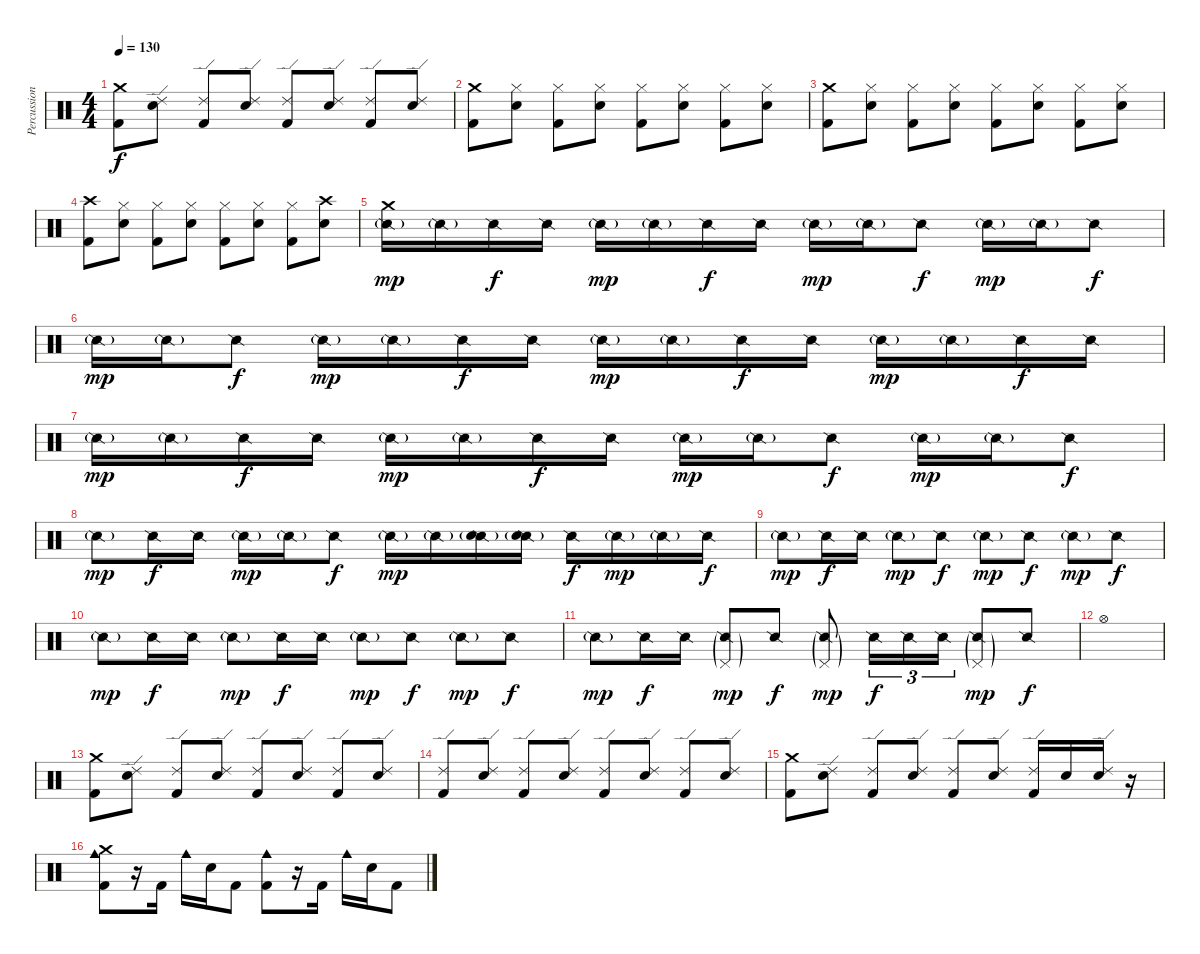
\track ("Percussion" "Percussion") {instrument percussion}
\staff {score}
\articulation defaults
\ts (4 4)
\tempo 130
\clef neutral
\ks c
("Crash medium (hit)" "Kick (hit) 2").8{dy f} ("Ride (edge) 2" "Electric Snare (hit)").8 ("Ride (edge) 2" "Kick (hit) 2").8 ("Ride (edge) 2" "Electric Snare (hit)").8 ("Ride (edge) 2" "Kick (hit) 2").8 ("Ride (edge) 2" "Electric Snare (hit)").8 ("Ride (edge) 2" "Kick (hit) 2").8 ("Ride (edge) 2" "Electric Snare (hit)").8 |
("Crash medium (hit)" "Kick (hit) 2").8 ("Hi-Hat (closed)" "Electric Snare (hit)").8 ("Hi-Hat (closed)" "Kick (hit) 2").8 ("Hi-Hat (closed)" "Electric Snare (hit)").8 ("Hi-Hat (closed)" "Kick (hit) 2").8 ("Hi-Hat (closed)" "Electric Snare (hit)").8 ("Hi-Hat (closed)" "Kick (hit) 2").8 ("Hi-Hat (closed)" "Electric Snare (hit)").8 |
("Crash medium (hit)" "Kick (hit) 2").8 ("Hi-Hat (closed)" "Electric Snare (hit)").8 ("Hi-Hat (closed)" "Kick (hit) 2").8 ("Hi-Hat (closed)" "Electric Snare (hit)").8 ("Hi-Hat (closed)" "Kick (hit) 2").8 ("Hi-Hat (closed)" "Electric Snare (hit)").8 ("Hi-Hat (closed)" "Kick (hit) 2").8 ("Hi-Hat (closed)" "Electric Snare (hit)").8 |
("Crash high (hit)" "Kick (hit) 2").8 ("Hi-Hat (closed)" "Electric Snare (hit)").8 ("Hi-Hat (closed)" "Kick (hit) 2").8 ("Hi-Hat (closed)" "Electric Snare (hit)").8 ("Hi-Hat (closed)" "Kick (hit) 2").8 ("Hi-Hat (closed)" "Electric Snare (hit)").8 ("Hi-Hat (closed)" "Kick (hit) 2").8 ("Crash high (hit)" "Electric Snare (hit)").8 |
("Crash medium (hit)" "Snare (side stick) 2"{g}).16{dy mp} "Snare (side stick) 2"{g}.16 "Snare (side stick) 2".16{dy f} "Snare (side stick) 2".16 "Snare (side stick) 2"{g}.16{dy mp} "Snare (side stick) 2"{g}.16 "Snare (side stick) 2".16{dy f} "Snare (side stick) 2".16 "Snare (side stick) 2"{g}.16{dy mp} "Snare (side stick) 2"{g}.16 "Snare (side stick) 2".8{dy f} "Snare (side stick) 2"{g}.16{dy mp} "Snare (side stick) 2"{g}.16 "Snare (side stick) 2".8{dy f} |
"Snare (side stick) 2"{g}.16{dy mp} "Snare (side stick) 2"{g}.16 "Snare (side stick) 2".8{dy f} "Snare (side stick) 2"{g}.16{dy mp} "Snare (side stick) 2"{g}.16 "Snare (side stick) 2".16{dy f} "Snare (side stick) 2".16 "Snare (side stick) 2"{g}.16{dy mp} "Snare (side stick) 2"{g}.16 "Snare (side stick) 2".16{dy f} "Snare (side stick) 2".16 "Snare (side stick) 2"{g}.16{dy mp} "Snare (side stick) 2"{g}.16 "Snare (side stick) 2".16{dy f} "Snare (side stick) 2".16 |
"Snare (side stick) 2"{g}.16{dy mp} "Snare (side stick) 2"{g}.16 "Snare (side stick) 2".16{dy f} "Snare (side stick) 2".16 "Snare (side stick) 2"{g}.16{dy mp} "Snare (side stick) 2"{g}.16 "Snare (side stick) 2".16{dy f} "Snare (side stick) 2".16 "Snare (side stick) 2"{g}.16{dy mp} "Snare (side stick) 2"{g}.16 "Snare (side stick) 2".8{dy f} "Snare (side stick) 2"{g}.16{dy mp} "Snare (side stick) 2"{g}.16 "Snare (side stick) 2".8{dy f} |
"Snare (side stick) 2"{g}.8{dy mp} "Snare (side stick) 2".16{dy f} "Snare (side stick) 2".16 "Snare (side stick) 2"{g}.16{dy mp} "Snare (side stick) 2"{g}.16 "Snare (side stick) 2".8{dy f} "Snare (side stick) 2"{g}.16{dy mp} "Snare (side stick) 2"{g}.16 ("Snare (side stick) 2"{g} "Electric Snare (hit)").16 ("Snare (side stick) 2"{g} "Electric Snare (hit)").16 "Snare (side stick) 2".16{dy f} "Snare (side stick) 2"{g}.16{dy mp} "Snare (side stick) 2"{g}.16 "Snare (side stick) 2".16{dy f} |
"Snare (side stick) 2"{g}.8{dy mp} "Snare (side stick) 2".16{dy f} "Snare (side stick) 2".16 "Snare (side stick) 2"{g}.8{dy mp} "Snare (side stick) 2".8{dy f} "Snare (side stick) 2"{g}.8{dy mp} "Snare (side stick) 2".8{dy f} "Snare (side stick) 2"{g}.8{dy mp} "Snare (side stick) 2".8{dy f} |
"Snare (side stick) 2"{g}.8{dy mp} "Snare (side stick) 2".16{dy f} "Snare (side stick) 2".16 "Snare (side stick) 2"{g}.8{dy mp} "Snare (side stick) 2".16{dy f} "Snare (side stick) 2".16 "Snare (side stick) 2"{g}.8{dy mp} "Snare (side stick) 2".8{dy f} "Snare (side stick) 2"{g}.8{dy mp} "Snare (side stick) 2".8{dy f} |
"Snare (side stick) 2"{g}.8{dy mp} "Snare (side stick) 2".16{dy f} "Snare (side stick) 2".16 ("Pedal Hi-Hat (hit)"{g} "Snare (side stick) 2"{g}).8{dy mp} "Snare (side stick) 2".8{dy f} ("Pedal Hi-Hat (hit)"{g} "Snare (side stick) 2"{g}).8{dy mp} "Snare (side stick) 2".16{tu (3 2) dy f} "Snare (side stick) 2".16{tu (3 2)} "Snare (side stick) 2".16{tu (3 2)} ("Pedal Hi-Hat (hit)"{g} "Snare (side stick) 2"{g}).8{dy mp} "Snare (side stick) 2".8{dy f} |
"Hi-Hat (open)".1 |
("Crash medium (hit)" "Kick (hit) 2").8 ("Ride (edge) 2" "Electric Snare (hit)").8 ("Ride (edge) 2" "Kick (hit) 2").8 ("Ride (edge) 2" "Electric Snare (hit)").8 ("Ride (edge) 2" "Kick (hit) 2").8 ("Ride (edge) 2" "Electric Snare (hit)").8 ("Ride (edge) 2" "Kick (hit) 2").8 ("Ride (edge) 2" "Electric Snare (hit)").8 |
("Ride (edge) 2" "Kick (hit) 2").8 ("Ride (edge) 2" "Electric Snare (hit)").8 ("Ride (edge) 2" "Kick (hit) 2").8 ("Ride (edge) 2" "Electric Snare (hit)").8 ("Ride (edge) 2" "Kick (hit) 2").8 ("Ride (edge) 2" "Electric Snare (hit)").8 ("Ride (edge) 2" "Kick (hit) 2").8 ("Ride (edge) 2" "Electric Snare (hit)").8 |
("Crash medium (hit)" "Kick (hit) 2").8 ("Ride (edge) 2" "Electric Snare (hit)").8 ("Ride (edge) 2" "Kick (hit) 2").8 ("Ride (edge) 2" "Electric Snare (hit)").8 ("Ride (edge) 2" "Kick (hit) 2").8 ("Ride (edge) 2" "Electric Snare (hit)").8 ("Ride (edge) 2" "Kick (hit) 2").16 "Electric Snare (hit)".16 ("Ride (edge) 2" "Electric Snare (hit)").16 r.16 |
("Crash medium (hit)" "Cowbell medium (hit)" "Kick (hit) 2").8 r.16 "Kick (hit) 2".16 "Cowbell medium (hit)".16 "Electric Snare (hit)".16 "Kick (hit) 2".8 ("Cowbell medium (hit)" "Kick (hit) 2").8 r.16 "Kick (hit) 2".16 "Cowbell medium (hit)".16 "Electric Snare (hit)".16 "Kick (hit) 2".8
